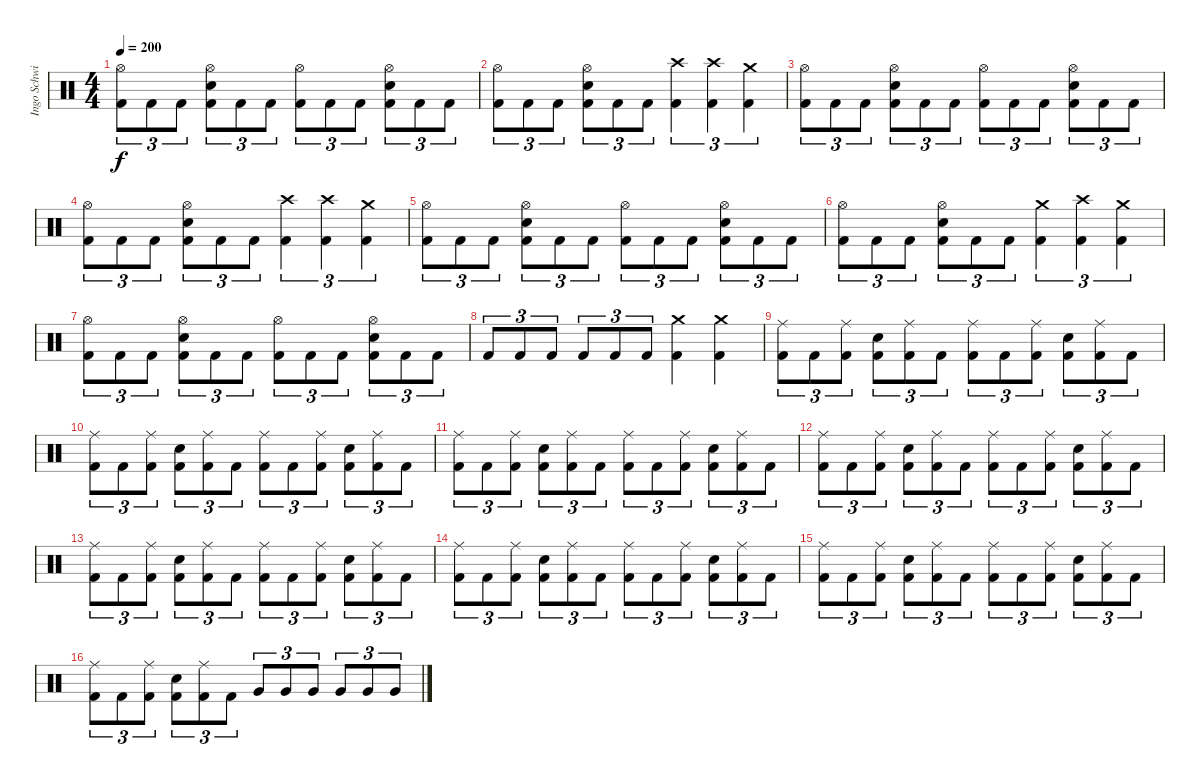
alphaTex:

\track ("Ingo Schwichtenberg" "Ingo Schwi") {instrument percussion}
\staff {score}
\articulation defaults
\ts (4 4)
\tempo 200
\clef neutral
\ks c
("Hi-Hat (open)" "Kick (hit) 2").8{tu (3 2) dy f} "Kick (hit) 2".8{tu (3 2)} "Kick (hit) 2".8{tu (3 2)} ("Hi-Hat (open)" "Snare (hit) 2" "Kick (hit) 2").8{tu (3 2)} "Kick (hit) 2".8{tu (3 2)} "Kick (hit) 2".8{tu (3 2)} ("Hi-Hat (open)" "Kick (hit) 2").8{tu (3 2)} "Kick (hit) 2".8{tu (3 2)} "Kick (hit) 2".8{tu (3 2)} ("Hi-Hat (open)" "Snare (hit) 2" "Kick (hit) 2").8{tu (3 2)} "Kick (hit) 2".8{tu (3 2)} "Kick (hit) 2".8{tu (3 2)} |
("Hi-Hat (open)" "Kick (hit) 2").8{tu (3 2)} "Kick (hit) 2".8{tu (3 2)} "Kick (hit) 2".8{tu (3 2)} ("Hi-Hat (open)" "Snare (hit) 2" "Kick (hit) 2").8{tu (3 2)} "Kick (hit) 2".8{tu (3 2)} "Kick (hit) 2".8{tu (3 2)} ("Crash high (hit)" "Kick (hit) 2").4{tu (3 2)} ("Crash high (hit)" "Kick (hit) 2").4{tu (3 2)} ("Crash medium (hit)" "Kick (hit) 2").4{tu (3 2)} |
("Hi-Hat (open)" "Kick (hit) 2").8{tu (3 2)} "Kick (hit) 2".8{tu (3 2)} "Kick (hit) 2".8{tu (3 2)} ("Hi-Hat (open)" "Snare (hit) 2" "Kick (hit) 2").8{tu (3 2)} "Kick (hit) 2".8{tu (3 2)} "Kick (hit) 2".8{tu (3 2)} ("Hi-Hat (open)" "Kick (hit) 2").8{tu (3 2)} "Kick (hit) 2".8{tu (3 2)} "Kick (hit) 2".8{tu (3 2)} ("Hi-Hat (open)" "Snare (hit) 2" "Kick (hit) 2").8{tu (3 2)} "Kick (hit) 2".8{tu (3 2)} "Kick (hit) 2".8{tu (3 2)} |
("Hi-Hat (open)" "Kick (hit) 2").8{tu (3 2)} "Kick (hit) 2".8{tu (3 2)} "Kick (hit) 2".8{tu (3 2)} ("Hi-Hat (open)" "Snare (hit) 2" "Kick (hit) 2").8{tu (3 2)} "Kick (hit) 2".8{tu (3 2)} "Kick (hit) 2".8{tu (3 2)} ("Crash high (hit)" "Kick (hit) 2").4{tu (3 2)} ("Crash high (hit)" "Kick (hit) 2").4{tu (3 2)} ("Crash medium (hit)" "Kick (hit) 2").4{tu (3 2)} |
("Hi-Hat (open)" "Kick (hit) 2").8{tu (3 2)} "Kick (hit) 2".8{tu (3 2)} "Kick (hit) 2".8{tu (3 2)} ("Hi-Hat (open)" "Snare (hit) 2" "Kick (hit) 2").8{tu (3 2)} "Kick (hit) 2".8{tu (3 2)} "Kick (hit) 2".8{tu (3 2)} ("Hi-Hat (open)" "Kick (hit) 2").8{tu (3 2)} "Kick (hit) 2".8{tu (3 2)} "Kick (hit) 2".8{tu (3 2)} ("Hi-Hat (open)" "Snare (hit) 2" "Kick (hit) 2").8{tu (3 2)} "Kick (hit) 2".8{tu (3 2)} "Kick (hit) 2".8{tu (3 2)} |
("Hi-Hat (open)" "Kick (hit) 2").8{tu (3 2)} "Kick (hit) 2".8{tu (3 2)} "Kick (hit) 2".8{tu (3 2)} ("Hi-Hat (open)" "Snare (hit) 2" "Kick (hit) 2").8{tu (3 2)} "Kick (hit) 2".8{tu (3 2)} "Kick (hit) 2".8{tu (3 2)} ("Crash medium (hit)" "Kick (hit) 2").4{tu (3 2)} ("Crash high (hit)" "Kick (hit) 2").4{tu (3 2)} ("Crash medium (hit)" "Kick (hit) 2").4{tu (3 2)} |
("Hi-Hat (open)" "Kick (hit) 2").8{tu (3 2)} "Kick (hit) 2".8{tu (3 2)} "Kick (hit) 2".8{tu (3 2)} ("Hi-Hat (open)" "Snare (hit) 2" "Kick (hit) 2").8{tu (3 2)} "Kick (hit) 2".8{tu (3 2)} "Kick (hit) 2".8{tu (3 2)} ("Hi-Hat (open)" "Kick (hit) 2").8{tu (3 2)} "Kick (hit) 2".8{tu (3 2)} "Kick (hit) 2".8{tu (3 2)} ("Hi-Hat (open)" "Snare (hit) 2" "Kick (hit) 2").8{tu (3 2)} "Kick (hit) 2".8{tu (3 2)} "Kick (hit) 2".8{tu (3 2)} |
"Kick (hit) 2".8{tu (3 2)} "Kick (hit) 2".8{tu (3 2)} "Kick (hit) 2".8{tu (3 2)} "Kick (hit) 2".8{tu (3 2)} "Kick (hit) 2".8{tu (3 2)} "Kick (hit) 2".8{tu (3 2)} ("Crash medium (hit)" "Kick (hit) 2").4 ("Crash medium (hit)" "Kick (hit) 2").4 |
("Ride (middle)" "Kick (hit) 2").8{tu (3 2)} "Kick (hit) 2".8{tu (3 2)} ("Ride (middle)" "Kick (hit) 2").8{tu (3 2)} ("Snare (hit) 2" "Kick (hit) 2").8{tu (3 2)} ("Ride (middle)" "Kick (hit) 2").8{tu (3 2)} "Kick (hit) 2".8{tu (3 2)} ("Ride (middle)" "Kick (hit) 2").8{tu (3 2)} "Kick (hit) 2".8{tu (3 2)} ("Ride (middle)" "Kick (hit) 2").8{tu (3 2)} ("Snare (hit) 2" "Kick (hit) 2").8{tu (3 2)} ("Ride (middle)" "Kick (hit) 2").8{tu (3 2)} "Kick (hit) 2".8{tu (3 2)} |
("Ride (middle)" "Kick (hit) 2").8{tu (3 2)} "Kick (hit) 2".8{tu (3 2)} ("Ride (middle)" "Kick (hit) 2").8{tu (3 2)} ("Snare (hit) 2" "Kick (hit) 2").8{tu (3 2)} ("Ride (middle)" "Kick (hit) 2").8{tu (3 2)} "Kick (hit) 2".8{tu (3 2)} ("Ride (middle)" "Kick (hit) 2").8{tu (3 2)} "Kick (hit) 2".8{tu (3 2)} ("Ride (middle)" "Kick (hit) 2").8{tu (3 2)} ("Snare (hit) 2" "Kick (hit) 2").8{tu (3 2)} ("Ride (middle)" "Kick (hit) 2").8{tu (3 2)} "Kick (hit) 2".8{tu (3 2)} |
("Ride (middle)" "Kick (hit) 2").8{tu (3 2)} "Kick (hit) 2".8{tu (3 2)} ("Ride (middle)" "Kick (hit) 2").8{tu (3 2)} ("Snare (hit) 2" "Kick (hit) 2").8{tu (3 2)} ("Ride (middle)" "Kick (hit) 2").8{tu (3 2)} "Kick (hit) 2".8{tu (3 2)} ("Ride (middle)" "Kick (hit) 2").8{tu (3 2)} "Kick (hit) 2".8{tu (3 2)} ("Ride (middle)" "Kick (hit) 2").8{tu (3 2)} ("Snare (hit) 2" "Kick (hit) 2").8{tu (3 2)} ("Ride (middle)" "Kick (hit) 2").8{tu (3 2)} "Kick (hit) 2".8{tu (3 2)} |
("Ride (middle)" "Kick (hit) 2").8{tu (3 2)} "Kick (hit) 2".8{tu (3 2)} ("Ride (middle)" "Kick (hit) 2").8{tu (3 2)} ("Snare (hit) 2" "Kick (hit) 2").8{tu (3 2)} ("Ride (middle)" "Kick (hit) 2").8{tu (3 2)} "Kick (hit) 2".8{tu (3 2)} ("Ride (middle)" "Kick (hit) 2").8{tu (3 2)} "Kick (hit) 2".8{tu (3 2)} ("Ride (middle)" "Kick (hit) 2").8{tu (3 2)} ("Snare (hit) 2" "Kick (hit) 2").8{tu (3 2)} ("Ride (middle)" "Kick (hit) 2").8{tu (3 2)} "Kick (hit) 2".8{tu (3 2)} |
("Ride (middle)" "Kick (hit) 2").8{tu (3 2)} "Kick (hit) 2".8{tu (3 2)} ("Ride (middle)" "Kick (hit) 2").8{tu (3 2)} ("Snare (hit) 2" "Kick (hit) 2").8{tu (3 2)} ("Ride (middle)" "Kick (hit) 2").8{tu (3 2)} "Kick (hit) 2".8{tu (3 2)} ("Ride (middle)" "Kick (hit) 2").8{tu (3 2)} "Kick (hit) 2".8{tu (3 2)} ("Ride (middle)" "Kick (hit) 2").8{tu (3 2)} ("Snare (hit) 2" "Kick (hit) 2").8{tu (3 2)} ("Ride (middle)" "Kick (hit) 2").8{tu (3 2)} "Kick (hit) 2".8{tu (3 2)} |
("Ride (middle)" "Kick (hit) 2").8{tu (3 2)} "Kick (hit) 2".8{tu (3 2)} ("Ride (middle)" "Kick (hit) 2").8{tu (3 2)} ("Snare (hit) 2" "Kick (hit) 2").8{tu (3 2)} ("Ride (middle)" "Kick (hit) 2").8{tu (3 2)} "Kick (hit) 2".8{tu (3 2)} ("Ride (middle)" "Kick (hit) 2").8{tu (3 2)} "Kick (hit) 2".8{tu (3 2)} ("Ride (middle)" "Kick (hit) 2").8{tu (3 2)} ("Snare (hit) 2" "Kick (hit) 2").8{tu (3 2)} ("Ride (middle)" "Kick (hit) 2").8{tu (3 2)} "Kick (hit) 2".8{tu (3 2)} |
("Ride (middle)" "Kick (hit) 2").8{tu (3 2)} "Kick (hit) 2".8{tu (3 2)} ("Ride (middle)" "Kick (hit) 2").8{tu (3 2)} ("Snare (hit) 2" "Kick (hit) 2").8{tu (3 2)} ("Ride (middle)" "Kick (hit) 2").8{tu (3 2)} "Kick (hit) 2".8{tu (3 2)} ("Ride (middle)" "Kick (hit) 2").8{tu (3 2)} "Kick (hit) 2".8{tu (3 2)} ("Ride (middle)" "Kick (hit) 2").8{tu (3 2)} ("Snare (hit) 2" "Kick (hit) 2").8{tu (3 2)} ("Ride (middle)" "Kick (hit) 2").8{tu (3 2)} "Kick (hit) 2".8{tu (3 2)} |
("Ride (middle)" "Kick (hit) 2").8{tu (3 2)} "Kick (hit) 2".8{tu (3 2)} ("Ride (middle)" "Kick (hit) 2").8{tu (3 2)} ("Snare (hit) 2" "Kick (hit) 2").8{tu (3 2)} ("Ride (middle)" "Kick (hit) 2").8{tu (3 2)} "Kick (hit) 2".8{tu (3 2)} "Very Low Tom (hit)".8{tu (3 2)} "Very Low Tom (hit)".8{tu (3 2)} "Very Low Tom (hit)".8{tu (3 2)} "Very Low Tom (hit)".8{tu (3 2)} "Very Low Tom (hit)".8{tu (3 2)} "Very Low Tom (hit)".8{tu (3 2)}
